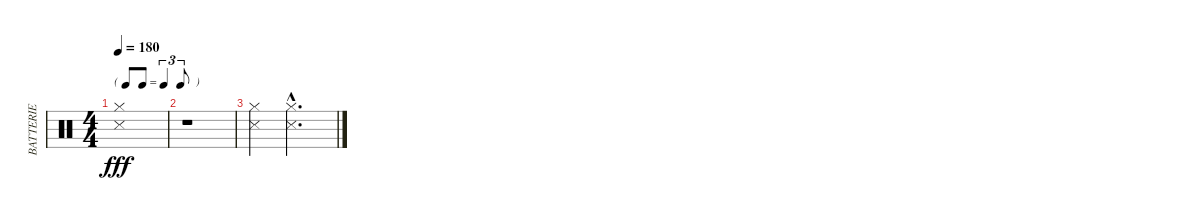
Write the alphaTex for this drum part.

\track ("BATTERIE" "BATTERIE") {instrument percussion}
\staff {score}
\articulation defaults
\ts (4 4)
\tf triplet8th
\tempo 180
\clef neutral
\ks c
("Hi-Hat (closed)" "Snare (side stick) 3").1{dy fff} |
r.1 |
("Hi-Hat (closed)" "Snare (side stick) 3").4 ("Hi-Hat (closed)"{hac} "Snare (side stick) 3"{hac}).2{d}
